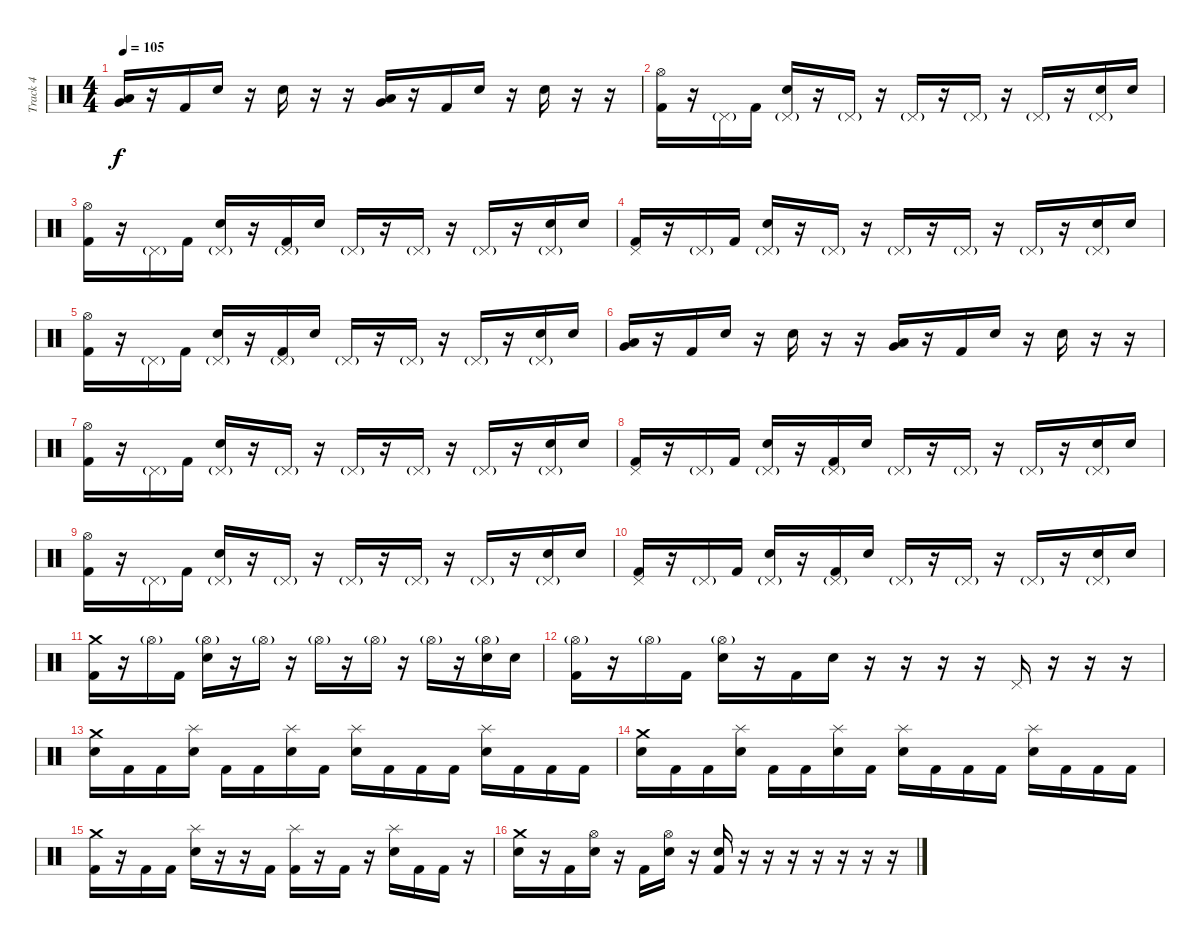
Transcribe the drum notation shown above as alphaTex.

\track ("Track 4" "Track 4") {instrument percussion}
\staff {score}
\articulation defaults
\ts (4 4)
\tempo 105
\clef neutral
\ks c
("Very Low Tom (hit)" "Low Tom (hit)").16{dy f} r.16 "Kick (hit) 2".16 "Electric Snare (hit)".16 r.16 "Electric Snare (hit)".16 r.16 r.16 ("Very Low Tom (hit)" "Low Tom (hit)").16 r.16 "Kick (hit) 2".16 "Electric Snare (hit)".16 r.16 "Electric Snare (hit)".16 r.16 r.16 |
("Hi-Hat (open)" "Kick (hit) 2").16 r.16 "Pedal Hi-Hat (hit)"{g}.16 "Kick (hit) 2".16 ("Pedal Hi-Hat (hit)"{g} "Electric Snare (hit)").16 r.16 "Pedal Hi-Hat (hit)"{g}.16 r.16 "Pedal Hi-Hat (hit)"{g}.16 r.16 "Pedal Hi-Hat (hit)"{g}.16 r.16 "Pedal Hi-Hat (hit)"{g}.16 r.16 ("Pedal Hi-Hat (hit)"{g} "Electric Snare (hit)").16 "Electric Snare (hit)".16 |
("Hi-Hat (open)" "Kick (hit) 2").16 r.16 "Pedal Hi-Hat (hit)"{g}.16 "Kick (hit) 2".16 ("Pedal Hi-Hat (hit)"{g} "Electric Snare (hit)").16 r.16 ("Pedal Hi-Hat (hit)"{g} "Kick (hit) 2").16 "Electric Snare (hit)".16 "Pedal Hi-Hat (hit)"{g}.16 r.16 "Pedal Hi-Hat (hit)"{g}.16 r.16 "Pedal Hi-Hat (hit)"{g}.16 r.16 ("Pedal Hi-Hat (hit)"{g} "Electric Snare (hit)").16 "Electric Snare (hit)".16 |
("Pedal Hi-Hat (hit)" "Kick (hit) 2").16 r.16 "Pedal Hi-Hat (hit)"{g}.16 "Kick (hit) 2".16 ("Pedal Hi-Hat (hit)"{g} "Electric Snare (hit)").16 r.16 "Pedal Hi-Hat (hit)"{g}.16 r.16 "Pedal Hi-Hat (hit)"{g}.16 r.16 "Pedal Hi-Hat (hit)"{g}.16 r.16 "Pedal Hi-Hat (hit)"{g}.16 r.16 ("Pedal Hi-Hat (hit)"{g} "Electric Snare (hit)").16 "Electric Snare (hit)".16 |
("Hi-Hat (open)" "Kick (hit) 2").16 r.16 "Pedal Hi-Hat (hit)"{g}.16 "Kick (hit) 2".16 ("Pedal Hi-Hat (hit)"{g} "Electric Snare (hit)").16 r.16 ("Pedal Hi-Hat (hit)"{g} "Kick (hit) 2").16 "Electric Snare (hit)".16 "Pedal Hi-Hat (hit)"{g}.16 r.16 "Pedal Hi-Hat (hit)"{g}.16 r.16 "Pedal Hi-Hat (hit)"{g}.16 r.16 ("Pedal Hi-Hat (hit)"{g} "Electric Snare (hit)").16 "Electric Snare (hit)".16 |
("Very Low Tom (hit)" "Low Tom (hit)").16 r.16 "Kick (hit) 2".16 "Electric Snare (hit)".16 r.16 "Electric Snare (hit)".16 r.16 r.16 ("Very Low Tom (hit)" "Low Tom (hit)").16 r.16 "Kick (hit) 2".16 "Electric Snare (hit)".16 r.16 "Electric Snare (hit)".16 r.16 r.16 |
("Hi-Hat (open)" "Kick (hit) 2").16 r.16 "Pedal Hi-Hat (hit)"{g}.16 "Kick (hit) 2".16 ("Pedal Hi-Hat (hit)"{g} "Electric Snare (hit)").16 r.16 "Pedal Hi-Hat (hit)"{g}.16 r.16 "Pedal Hi-Hat (hit)"{g}.16 r.16 "Pedal Hi-Hat (hit)"{g}.16 r.16 "Pedal Hi-Hat (hit)"{g}.16 r.16 ("Pedal Hi-Hat (hit)"{g} "Electric Snare (hit)").16 "Electric Snare (hit)".16 |
("Pedal Hi-Hat (hit)" "Kick (hit) 2").16 r.16 "Pedal Hi-Hat (hit)"{g}.16 "Kick (hit) 2".16 ("Pedal Hi-Hat (hit)"{g} "Electric Snare (hit)").16 r.16 ("Pedal Hi-Hat (hit)"{g} "Kick (hit) 2").16 "Electric Snare (hit)".16 "Pedal Hi-Hat (hit)"{g}.16 r.16 "Pedal Hi-Hat (hit)"{g}.16 r.16 "Pedal Hi-Hat (hit)"{g}.16 r.16 ("Pedal Hi-Hat (hit)"{g} "Electric Snare (hit)").16 "Electric Snare (hit)".16 |
("Hi-Hat (open)" "Kick (hit) 2").16 r.16 "Pedal Hi-Hat (hit)"{g}.16 "Kick (hit) 2".16 ("Pedal Hi-Hat (hit)"{g} "Electric Snare (hit)").16 r.16 "Pedal Hi-Hat (hit)"{g}.16 r.16 "Pedal Hi-Hat (hit)"{g}.16 r.16 "Pedal Hi-Hat (hit)"{g}.16 r.16 "Pedal Hi-Hat (hit)"{g}.16 r.16 ("Pedal Hi-Hat (hit)"{g} "Electric Snare (hit)").16 "Electric Snare (hit)".16 |
("Pedal Hi-Hat (hit)" "Kick (hit) 2").16 r.16 "Pedal Hi-Hat (hit)"{g}.16 "Kick (hit) 2".16 ("Pedal Hi-Hat (hit)"{g} "Electric Snare (hit)").16 r.16 ("Pedal Hi-Hat (hit)"{g} "Kick (hit) 2").16 "Electric Snare (hit)".16 "Pedal Hi-Hat (hit)"{g}.16 r.16 "Pedal Hi-Hat (hit)"{g}.16 r.16 "Pedal Hi-Hat (hit)"{g}.16 r.16 ("Pedal Hi-Hat (hit)"{g} "Electric Snare (hit)").16 "Electric Snare (hit)".16 |
("Crash medium (hit)" "Kick (hit) 2").16 r.16 "Hi-Hat (open)"{g}.16 "Kick (hit) 2".16 ("Hi-Hat (open)"{g} "Electric Snare (hit)").16 r.16 "Hi-Hat (open)"{g}.16 r.16 "Hi-Hat (open)"{g}.16 r.16 "Hi-Hat (open)"{g}.16 r.16 "Hi-Hat (open)"{g}.16 r.16 ("Hi-Hat (open)"{g} "Electric Snare (hit)").16 "Electric Snare (hit)".16 |
("Hi-Hat (open)"{g} "Kick (hit) 2").16 r.16 "Hi-Hat (open)"{g}.16 "Kick (hit) 2".16 ("Hi-Hat (open)"{g} "Electric Snare (hit)").16 r.16 "Kick (hit) 2".16 "Electric Snare (hit)".16 r.16 r.16 r.16 r.16 "Pedal Hi-Hat (hit)".16 r.16 r.16 r.16 |
("Crash medium (hit)" "Electric Snare (hit)").16 "Kick (hit) 2".16 "Kick (hit) 2".16 ("Splash (hit)" "Electric Snare (hit)").16 "Kick (hit) 2".16 "Kick (hit) 2".16 ("Splash (hit)" "Electric Snare (hit)").16 "Kick (hit) 2".16 ("Splash (hit)" "Electric Snare (hit)").16 "Kick (hit) 2".16 "Kick (hit) 2".16 "Kick (hit) 2".16 ("Splash (hit)" "Electric Snare (hit)").16 "Kick (hit) 2".16 "Kick (hit) 2".16 "Kick (hit) 2".16 |
("Crash medium (hit)" "Electric Snare (hit)").16 "Kick (hit) 2".16 "Kick (hit) 2".16 ("Splash (hit)" "Electric Snare (hit)").16 "Kick (hit) 2".16 "Kick (hit) 2".16 ("Splash (hit)" "Electric Snare (hit)").16 "Kick (hit) 2".16 ("Splash (hit)" "Electric Snare (hit)").16 "Kick (hit) 2".16 "Kick (hit) 2".16 "Kick (hit) 2".16 ("Splash (hit)" "Electric Snare (hit)").16 "Kick (hit) 2".16 "Kick (hit) 2".16 "Kick (hit) 2".16 |
("Crash medium (hit)" "Kick (hit) 2").16 r.16 "Kick (hit) 2".16 "Kick (hit) 2".16 ("Splash (hit)" "Electric Snare (hit)").16 r.16 r.16 "Kick (hit) 2".16 ("Splash (hit)" "Kick (hit) 2").16 r.16 "Kick (hit) 2".16 r.16 ("Splash (hit)" "Electric Snare (hit)").16 "Kick (hit) 2".16 "Kick (hit) 2".16 r.16 |
("Crash medium (hit)" "Electric Snare (hit)").16 r.16 "Kick (hit) 2".16 ("Hi-Hat (open)" "Electric Snare (hit)").16 r.16 "Kick (hit) 2".16 ("Hi-Hat (open)" "Electric Snare (hit)").16 r.16 ("Electric Snare (hit)" "Kick (hit) 2").16 r.16 r.16 r.16 r.16 r.16 r.16 r.16
